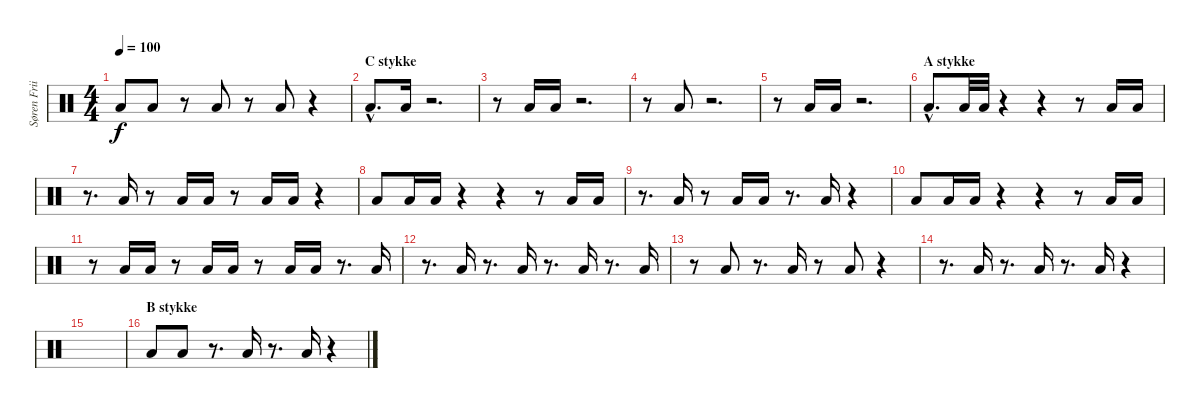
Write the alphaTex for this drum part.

\track ("Søren Friis (Drums)" "Søren Frii") {instrument percussion}
\staff {score}
\articulation defaults
\ts (4 4)
\tempo 100
\clef neutral
\ks c "Low Floor Tom (hit)".8{dy f} "Low Floor Tom (hit)".8
r.8 "Low Floor Tom (hit)".8 r.8 "Low Floor Tom (hit)".8 r.4 |
\section ("" "C stykke")
"Low Floor Tom (hit)"{hac}.8{d} "Low Floor Tom (hit)".16 r.2{d} |
r.8 "Low Floor Tom (hit)".16 "Low Floor Tom (hit)".16 r.2{d} |
r.8 "Low Floor Tom (hit)".8 r.2{d} |
r.8 "Low Floor Tom (hit)".16 "Low Floor Tom (hit)".16 r.2{d} |
\section ("" "A stykke")
"Low Floor Tom (hit)"{hac}.8{d} "Low Floor Tom (hit)".32 "Low Floor Tom (hit)".32 r.4 r.4 r.8 "Low Floor Tom (hit)".16 "Low Floor Tom (hit)".16 |
r.8{d} "Low Floor Tom (hit)".16 r.8 "Low Floor Tom (hit)".16 "Low Floor Tom (hit)".16 r.8 "Low Floor Tom (hit)".16 "Low Floor Tom (hit)".16 r.4 |
"Low Floor Tom (hit)".8 "Low Floor Tom (hit)".16 "Low Floor Tom (hit)".16 r.4 r.4 r.8 "Low Floor Tom (hit)".16 "Low Floor Tom (hit)".16 |
r.8{d} "Low Floor Tom (hit)".16 r.8 "Low Floor Tom (hit)".16 "Low Floor Tom (hit)".16 r.8{d} "Low Floor Tom (hit)".16 r.4 |
"Low Floor Tom (hit)".8 "Low Floor Tom (hit)".16 "Low Floor Tom (hit)".16 r.4 r.4 r.8 "Low Floor Tom (hit)".16 "Low Floor Tom (hit)".16 |
r.8 "Low Floor Tom (hit)".16 "Low Floor Tom (hit)".16 r.8 "Low Floor Tom (hit)".16 "Low Floor Tom (hit)".16 r.8 "Low Floor Tom (hit)".16 "Low Floor Tom (hit)".16 r.8{d} "Low Floor Tom (hit)".16 |
r.8{d} "Low Floor Tom (hit)".16 r.8{d} "Low Floor Tom (hit)".16 r.8{d} "Low Floor Tom (hit)".16 r.8{d} "Low Floor Tom (hit)".16 |
r.8 "Low Floor Tom (hit)".8 r.8{d} "Low Floor Tom (hit)".16 r.8 "Low Floor Tom (hit)".8 r.4 |
r.8{d} "Low Floor Tom (hit)".16 r.8{d} "Low Floor Tom (hit)".16 r.8{d} "Low Floor Tom (hit)".16 r.4 |
|
\section ("" "B stykke")
"Low Floor Tom (hit)".8 "Low Floor Tom (hit)".8 r.8{d} "Low Floor Tom (hit)".16 r.8{d} "Low Floor Tom (hit)".16 r.4
